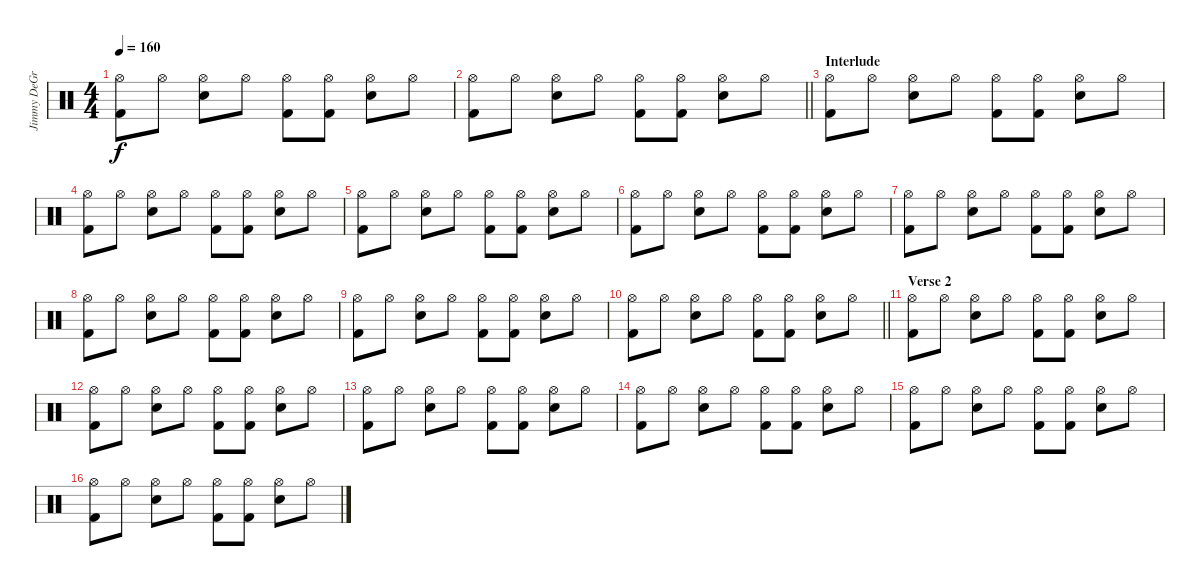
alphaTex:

\track ("Jimmy DeGrasso" "Jimmy DeGr") {instrument percussion}
\staff {score}
\articulation defaults
\ts (4 4)
\tempo 160
\clef neutral
\ks c
("Hi-Hat (open)" "Kick (hit) 2").8{dy f} "Hi-Hat (open)".8 ("Hi-Hat (open)" "Snare (hit) 2").8 "Hi-Hat (open)".8 ("Hi-Hat (open)" "Kick (hit) 2").8 ("Hi-Hat (open)" "Kick (hit) 2").8 ("Hi-Hat (open)" "Snare (hit) 2").8 "Hi-Hat (open)".8 |
\barLineRight lightlight
("Hi-Hat (open)" "Kick (hit) 2").8 "Hi-Hat (open)".8 ("Hi-Hat (open)" "Snare (hit) 2").8 "Hi-Hat (open)".8 ("Hi-Hat (open)" "Kick (hit) 2").8 ("Hi-Hat (open)" "Kick (hit) 2").8 ("Hi-Hat (open)" "Snare (hit) 2").8 "Hi-Hat (open)".8 |
\section ("" "Interlude")
("Hi-Hat (open)" "Kick (hit) 2").8 "Hi-Hat (open)".8 ("Hi-Hat (open)" "Snare (hit) 2").8 "Hi-Hat (open)".8 ("Hi-Hat (open)" "Kick (hit) 2").8 ("Hi-Hat (open)" "Kick (hit) 2").8 ("Hi-Hat (open)" "Snare (hit) 2").8 "Hi-Hat (open)".8 |
("Hi-Hat (open)" "Kick (hit) 2").8 "Hi-Hat (open)".8 ("Hi-Hat (open)" "Snare (hit) 2").8 "Hi-Hat (open)".8 ("Hi-Hat (open)" "Kick (hit) 2").8 ("Hi-Hat (open)" "Kick (hit) 2").8 ("Hi-Hat (open)" "Snare (hit) 2").8 "Hi-Hat (open)".8 |
("Hi-Hat (open)" "Kick (hit) 2").8 "Hi-Hat (open)".8 ("Hi-Hat (open)" "Snare (hit) 2").8 "Hi-Hat (open)".8 ("Hi-Hat (open)" "Kick (hit) 2").8 ("Hi-Hat (open)" "Kick (hit) 2").8 ("Hi-Hat (open)" "Snare (hit) 2").8 "Hi-Hat (open)".8 |
("Hi-Hat (open)" "Kick (hit) 2").8 "Hi-Hat (open)".8 ("Hi-Hat (open)" "Snare (hit) 2").8 "Hi-Hat (open)".8 ("Hi-Hat (open)" "Kick (hit) 2").8 ("Hi-Hat (open)" "Kick (hit) 2").8 ("Hi-Hat (open)" "Snare (hit) 2").8 "Hi-Hat (open)".8 |
("Hi-Hat (open)" "Kick (hit) 2").8 "Hi-Hat (open)".8 ("Hi-Hat (open)" "Snare (hit) 2").8 "Hi-Hat (open)".8 ("Hi-Hat (open)" "Kick (hit) 2").8 ("Hi-Hat (open)" "Kick (hit) 2").8 ("Hi-Hat (open)" "Snare (hit) 2").8 "Hi-Hat (open)".8 |
("Hi-Hat (open)" "Kick (hit) 2").8 "Hi-Hat (open)".8 ("Hi-Hat (open)" "Snare (hit) 2").8 "Hi-Hat (open)".8 ("Hi-Hat (open)" "Kick (hit) 2").8 ("Hi-Hat (open)" "Kick (hit) 2").8 ("Hi-Hat (open)" "Snare (hit) 2").8 "Hi-Hat (open)".8 |
("Hi-Hat (open)" "Kick (hit) 2").8 "Hi-Hat (open)".8 ("Hi-Hat (open)" "Snare (hit) 2").8 "Hi-Hat (open)".8 ("Hi-Hat (open)" "Kick (hit) 2").8 ("Hi-Hat (open)" "Kick (hit) 2").8 ("Hi-Hat (open)" "Snare (hit) 2").8 "Hi-Hat (open)".8 |
\barLineRight lightlight
("Hi-Hat (open)" "Kick (hit) 2").8 "Hi-Hat (open)".8 ("Hi-Hat (open)" "Snare (hit) 2").8 "Hi-Hat (open)".8 ("Hi-Hat (open)" "Kick (hit) 2").8 ("Hi-Hat (open)" "Kick (hit) 2").8 ("Hi-Hat (open)" "Snare (hit) 2").8 "Hi-Hat (open)".8 |
\section ("" "Verse 2")
("Hi-Hat (open)" "Kick (hit) 2").8 "Hi-Hat (open)".8 ("Hi-Hat (open)" "Snare (hit) 2").8 "Hi-Hat (open)".8 ("Hi-Hat (open)" "Kick (hit) 2").8 ("Hi-Hat (open)" "Kick (hit) 2").8 ("Hi-Hat (open)" "Snare (hit) 2").8 "Hi-Hat (open)".8 |
("Hi-Hat (open)" "Kick (hit) 2").8 "Hi-Hat (open)".8 ("Hi-Hat (open)" "Snare (hit) 2").8 "Hi-Hat (open)".8 ("Hi-Hat (open)" "Kick (hit) 2").8 ("Hi-Hat (open)" "Kick (hit) 2").8 ("Hi-Hat (open)" "Snare (hit) 2").8 "Hi-Hat (open)".8 |
("Hi-Hat (open)" "Kick (hit) 2").8 "Hi-Hat (open)".8 ("Hi-Hat (open)" "Snare (hit) 2").8 "Hi-Hat (open)".8 ("Hi-Hat (open)" "Kick (hit) 2").8 ("Hi-Hat (open)" "Kick (hit) 2").8 ("Hi-Hat (open)" "Snare (hit) 2").8 "Hi-Hat (open)".8 |
("Hi-Hat (open)" "Kick (hit) 2").8 "Hi-Hat (open)".8 ("Hi-Hat (open)" "Snare (hit) 2").8 "Hi-Hat (open)".8 ("Hi-Hat (open)" "Kick (hit) 2").8 ("Hi-Hat (open)" "Kick (hit) 2").8 ("Hi-Hat (open)" "Snare (hit) 2").8 "Hi-Hat (open)".8 |
("Hi-Hat (open)" "Kick (hit) 2").8 "Hi-Hat (open)".8 ("Hi-Hat (open)" "Snare (hit) 2").8 "Hi-Hat (open)".8 ("Hi-Hat (open)" "Kick (hit) 2").8 ("Hi-Hat (open)" "Kick (hit) 2").8 ("Hi-Hat (open)" "Snare (hit) 2").8 "Hi-Hat (open)".8 |
("Hi-Hat (open)" "Kick (hit) 2").8 "Hi-Hat (open)".8 ("Hi-Hat (open)" "Snare (hit) 2").8 "Hi-Hat (open)".8 ("Hi-Hat (open)" "Kick (hit) 2").8 ("Hi-Hat (open)" "Kick (hit) 2").8 ("Hi-Hat (open)" "Snare (hit) 2").8 "Hi-Hat (open)".8
